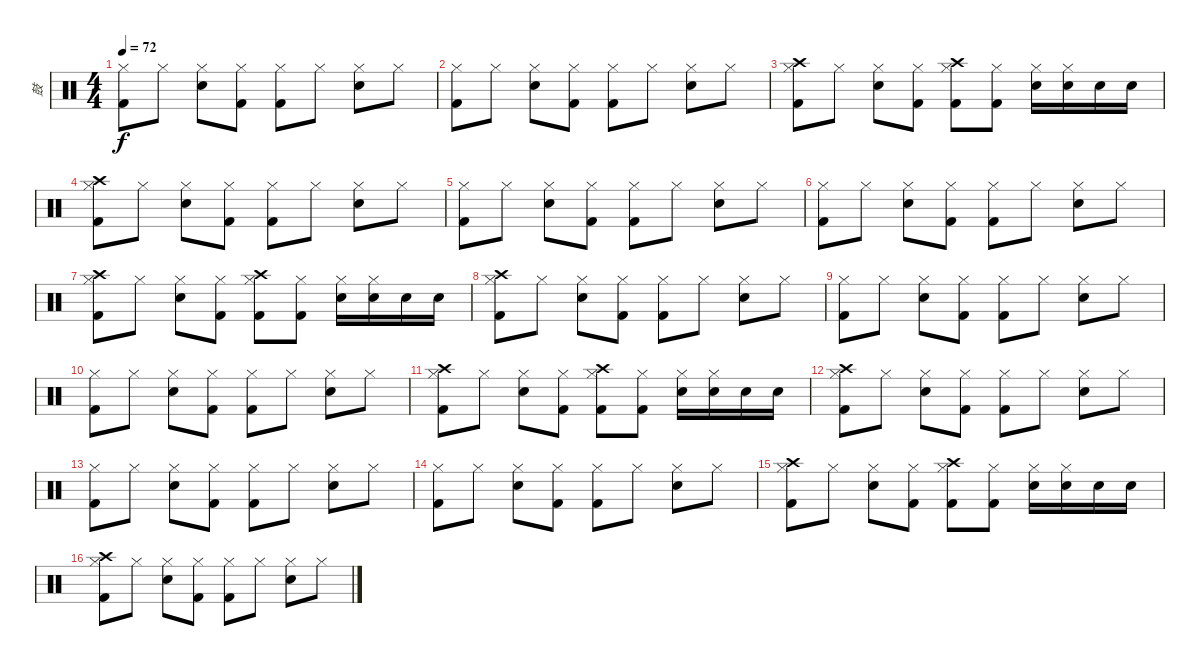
\track ("鼓" "鼓") {instrument percussion}
\staff {score}
\articulation defaults
\ts (4 4)
\tempo 72
\clef neutral
\ks c
("Hi-Hat (closed)" "Kick (hit) 2").8{dy f} "Hi-Hat (closed)".8 ("Hi-Hat (closed)" "Snare (hit) 2").8 ("Hi-Hat (closed)" "Kick (hit) 2").8 ("Hi-Hat (closed)" "Kick (hit) 2").8 "Hi-Hat (closed)".8 ("Hi-Hat (closed)" "Snare (hit) 2").8 "Hi-Hat (closed)".8 |
("Hi-Hat (closed)" "Kick (hit) 2").8 "Hi-Hat (closed)".8 ("Hi-Hat (closed)" "Snare (hit) 2").8 ("Hi-Hat (closed)" "Kick (hit) 2").8 ("Hi-Hat (closed)" "Kick (hit) 2").8 "Hi-Hat (closed)".8 ("Hi-Hat (closed)" "Snare (hit) 2").8 "Hi-Hat (closed)".8 |
("Hi-Hat (closed)" "Kick (hit) 2" "Crash high (hit)").8 "Hi-Hat (closed)".8 ("Hi-Hat (closed)" "Snare (hit) 2").8 ("Hi-Hat (closed)" "Kick (hit) 2").8 ("Hi-Hat (closed)" "Crash high (hit)" "Kick (hit) 2").8 ("Hi-Hat (closed)" "Kick (hit) 2").8 ("Hi-Hat (closed)" "Snare (hit) 2").16 ("Hi-Hat (closed)" "Snare (hit) 2").16 "Snare (hit) 2".16 "Snare (hit) 2".16 |
("Hi-Hat (closed)" "Kick (hit) 2" "Crash high (hit)").8 "Hi-Hat (closed)".8 ("Hi-Hat (closed)" "Snare (hit) 2").8 ("Hi-Hat (closed)" "Kick (hit) 2").8 ("Hi-Hat (closed)" "Kick (hit) 2").8 "Hi-Hat (closed)".8 ("Hi-Hat (closed)" "Snare (hit) 2").8 "Hi-Hat (closed)".8 |
("Hi-Hat (closed)" "Kick (hit) 2").8 "Hi-Hat (closed)".8 ("Hi-Hat (closed)" "Snare (hit) 2").8 ("Hi-Hat (closed)" "Kick (hit) 2").8 ("Hi-Hat (closed)" "Kick (hit) 2").8 "Hi-Hat (closed)".8 ("Hi-Hat (closed)" "Snare (hit) 2").8 "Hi-Hat (closed)".8 |
("Hi-Hat (closed)" "Kick (hit) 2").8 "Hi-Hat (closed)".8 ("Hi-Hat (closed)" "Snare (hit) 2").8 ("Hi-Hat (closed)" "Kick (hit) 2").8 ("Hi-Hat (closed)" "Kick (hit) 2").8 "Hi-Hat (closed)".8 ("Hi-Hat (closed)" "Snare (hit) 2").8 "Hi-Hat (closed)".8 |
("Hi-Hat (closed)" "Kick (hit) 2" "Crash high (hit)").8 "Hi-Hat (closed)".8 ("Hi-Hat (closed)" "Snare (hit) 2").8 ("Hi-Hat (closed)" "Kick (hit) 2").8 ("Hi-Hat (closed)" "Crash high (hit)" "Kick (hit) 2").8 ("Hi-Hat (closed)" "Kick (hit) 2").8 ("Hi-Hat (closed)" "Snare (hit) 2").16 ("Hi-Hat (closed)" "Snare (hit) 2").16 "Snare (hit) 2".16 "Snare (hit) 2".16 |
("Hi-Hat (closed)" "Kick (hit) 2" "Crash high (hit)").8 "Hi-Hat (closed)".8 ("Hi-Hat (closed)" "Snare (hit) 2").8 ("Hi-Hat (closed)" "Kick (hit) 2").8 ("Hi-Hat (closed)" "Kick (hit) 2").8 "Hi-Hat (closed)".8 ("Hi-Hat (closed)" "Snare (hit) 2").8 "Hi-Hat (closed)".8 |
("Hi-Hat (closed)" "Kick (hit) 2").8 "Hi-Hat (closed)".8 ("Hi-Hat (closed)" "Snare (hit) 2").8 ("Hi-Hat (closed)" "Kick (hit) 2").8 ("Hi-Hat (closed)" "Kick (hit) 2").8 "Hi-Hat (closed)".8 ("Hi-Hat (closed)" "Snare (hit) 2").8 "Hi-Hat (closed)".8 |
("Hi-Hat (closed)" "Kick (hit) 2").8 "Hi-Hat (closed)".8 ("Hi-Hat (closed)" "Snare (hit) 2").8 ("Hi-Hat (closed)" "Kick (hit) 2").8 ("Hi-Hat (closed)" "Kick (hit) 2").8 "Hi-Hat (closed)".8 ("Hi-Hat (closed)" "Snare (hit) 2").8 "Hi-Hat (closed)".8 |
("Hi-Hat (closed)" "Kick (hit) 2" "Crash high (hit)").8 "Hi-Hat (closed)".8 ("Hi-Hat (closed)" "Snare (hit) 2").8 ("Hi-Hat (closed)" "Kick (hit) 2").8 ("Hi-Hat (closed)" "Crash high (hit)" "Kick (hit) 2").8 ("Hi-Hat (closed)" "Kick (hit) 2").8 ("Hi-Hat (closed)" "Snare (hit) 2").16 ("Hi-Hat (closed)" "Snare (hit) 2").16 "Snare (hit) 2".16 "Snare (hit) 2".16 |
("Hi-Hat (closed)" "Kick (hit) 2" "Crash high (hit)").8 "Hi-Hat (closed)".8 ("Hi-Hat (closed)" "Snare (hit) 2").8 ("Hi-Hat (closed)" "Kick (hit) 2").8 ("Hi-Hat (closed)" "Kick (hit) 2").8 "Hi-Hat (closed)".8 ("Hi-Hat (closed)" "Snare (hit) 2").8 "Hi-Hat (closed)".8 |
("Hi-Hat (closed)" "Kick (hit) 2").8 "Hi-Hat (closed)".8 ("Hi-Hat (closed)" "Snare (hit) 2").8 ("Hi-Hat (closed)" "Kick (hit) 2").8 ("Hi-Hat (closed)" "Kick (hit) 2").8 "Hi-Hat (closed)".8 ("Hi-Hat (closed)" "Snare (hit) 2").8 "Hi-Hat (closed)".8 |
("Hi-Hat (closed)" "Kick (hit) 2").8 "Hi-Hat (closed)".8 ("Hi-Hat (closed)" "Snare (hit) 2").8 ("Hi-Hat (closed)" "Kick (hit) 2").8 ("Hi-Hat (closed)" "Kick (hit) 2").8 "Hi-Hat (closed)".8 ("Hi-Hat (closed)" "Snare (hit) 2").8 "Hi-Hat (closed)".8 |
("Hi-Hat (closed)" "Kick (hit) 2" "Crash high (hit)").8 "Hi-Hat (closed)".8 ("Hi-Hat (closed)" "Snare (hit) 2").8 ("Hi-Hat (closed)" "Kick (hit) 2").8 ("Hi-Hat (closed)" "Crash high (hit)" "Kick (hit) 2").8 ("Hi-Hat (closed)" "Kick (hit) 2").8 ("Hi-Hat (closed)" "Snare (hit) 2").16 ("Hi-Hat (closed)" "Snare (hit) 2").16 "Snare (hit) 2".16 "Snare (hit) 2".16 |
("Hi-Hat (closed)" "Kick (hit) 2" "Crash high (hit)").8 "Hi-Hat (closed)".8 ("Hi-Hat (closed)" "Snare (hit) 2").8 ("Hi-Hat (closed)" "Kick (hit) 2").8 ("Hi-Hat (closed)" "Kick (hit) 2").8 "Hi-Hat (closed)".8 ("Hi-Hat (closed)" "Snare (hit) 2").8 "Hi-Hat (closed)".8
